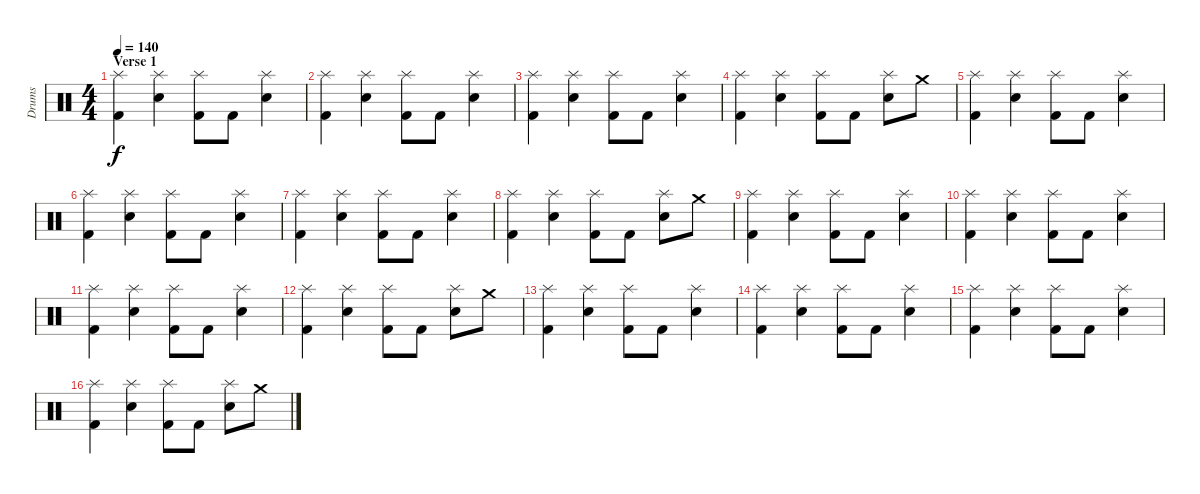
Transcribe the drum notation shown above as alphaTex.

\track ("Drums" "Drums") {instrument percussion}
\staff {score}
\articulation defaults
\ts (4 4)
\section ("" "Verse 1")
\tempo 140
\clef neutral
\ks c
("Splash (hit)" "Kick (hit) 2").4{dy f} ("Splash (hit)" "Snare (hit) 2").4 ("Splash (hit)" "Kick (hit) 2").8 "Kick (hit) 2".8 ("Splash (hit)" "Snare (hit) 2").4 |
("Splash (hit)" "Kick (hit) 2").4 ("Splash (hit)" "Snare (hit) 2").4 ("Splash (hit)" "Kick (hit) 2").8 "Kick (hit) 2".8 ("Splash (hit)" "Snare (hit) 2").4 |
("Splash (hit)" "Kick (hit) 2").4 ("Splash (hit)" "Snare (hit) 2").4 ("Splash (hit)" "Kick (hit) 2").8 "Kick (hit) 2".8 ("Splash (hit)" "Snare (hit) 2").4 |
("Splash (hit)" "Kick (hit) 2").4 ("Splash (hit)" "Snare (hit) 2").4 ("Splash (hit)" "Kick (hit) 2").8 "Kick (hit) 2".8 ("Splash (hit)" "Snare (hit) 2").8 "Crash medium (hit)".8 |
("Splash (hit)" "Kick (hit) 2").4 ("Splash (hit)" "Snare (hit) 2").4 ("Splash (hit)" "Kick (hit) 2").8 "Kick (hit) 2".8 ("Splash (hit)" "Snare (hit) 2").4 |
("Splash (hit)" "Kick (hit) 2").4 ("Splash (hit)" "Snare (hit) 2").4 ("Splash (hit)" "Kick (hit) 2").8 "Kick (hit) 2".8 ("Splash (hit)" "Snare (hit) 2").4 |
("Splash (hit)" "Kick (hit) 2").4 ("Splash (hit)" "Snare (hit) 2").4 ("Splash (hit)" "Kick (hit) 2").8 "Kick (hit) 2".8 ("Splash (hit)" "Snare (hit) 2").4 |
("Splash (hit)" "Kick (hit) 2").4 ("Splash (hit)" "Snare (hit) 2").4 ("Splash (hit)" "Kick (hit) 2").8 "Kick (hit) 2".8 ("Splash (hit)" "Snare (hit) 2").8 "Crash medium (hit)".8 |
("Splash (hit)" "Kick (hit) 2").4 ("Splash (hit)" "Snare (hit) 2").4 ("Splash (hit)" "Kick (hit) 2").8 "Kick (hit) 2".8 ("Splash (hit)" "Snare (hit) 2").4 |
("Splash (hit)" "Kick (hit) 2").4 ("Splash (hit)" "Snare (hit) 2").4 ("Splash (hit)" "Kick (hit) 2").8 "Kick (hit) 2".8 ("Splash (hit)" "Snare (hit) 2").4 |
("Splash (hit)" "Kick (hit) 2").4 ("Splash (hit)" "Snare (hit) 2").4 ("Splash (hit)" "Kick (hit) 2").8 "Kick (hit) 2".8 ("Splash (hit)" "Snare (hit) 2").4 |
("Splash (hit)" "Kick (hit) 2").4 ("Splash (hit)" "Snare (hit) 2").4 ("Splash (hit)" "Kick (hit) 2").8 "Kick (hit) 2".8 ("Splash (hit)" "Snare (hit) 2").8 "Crash medium (hit)".8 |
("Splash (hit)" "Kick (hit) 2").4 ("Splash (hit)" "Snare (hit) 2").4 ("Splash (hit)" "Kick (hit) 2").8 "Kick (hit) 2".8 ("Splash (hit)" "Snare (hit) 2").4 |
("Splash (hit)" "Kick (hit) 2").4 ("Splash (hit)" "Snare (hit) 2").4 ("Splash (hit)" "Kick (hit) 2").8 "Kick (hit) 2".8 ("Splash (hit)" "Snare (hit) 2").4 |
("Splash (hit)" "Kick (hit) 2").4 ("Splash (hit)" "Snare (hit) 2").4 ("Splash (hit)" "Kick (hit) 2").8 "Kick (hit) 2".8 ("Splash (hit)" "Snare (hit) 2").4 |
("Splash (hit)" "Kick (hit) 2").4 ("Splash (hit)" "Snare (hit) 2").4 ("Splash (hit)" "Kick (hit) 2").8 "Kick (hit) 2".8 ("Splash (hit)" "Snare (hit) 2").8 "Crash medium (hit)".8
